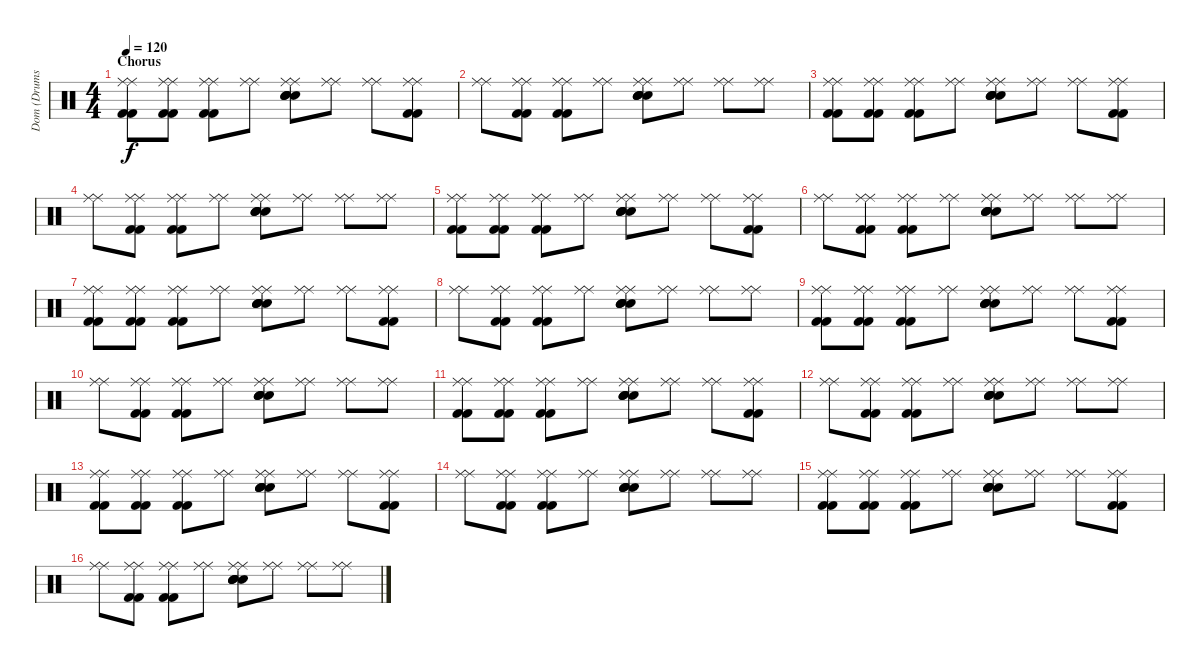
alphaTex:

\track ("Dom (Drums)" "Dom (Drums") {instrument percussion}
\staff {score}
\articulation defaults
\ts (4 4)
\section ("" "Chorus")
\tempo 120
\clef neutral
\ks c
("Kick (hit) 2" "Kick (hit) 2" "Ride (middle)" "Ride (middle)").8{dy f} ("Kick (hit) 2" "Kick (hit) 2" "Ride (middle)" "Ride (middle)").8 ("Kick (hit) 2" "Kick (hit) 2" "Ride (middle)" "Ride (middle)").8 ("Ride (middle)" "Ride (middle)").8 ("Electric Snare (hit)" "Electric Snare (hit)" "Snare (hit) 2" "Snare (hit) 2" "Ride (middle)" "Ride (middle)").8 ("Ride (middle)" "Ride (middle)").8 ("Ride (middle)" "Ride (middle)").8 ("Kick (hit) 2" "Kick (hit) 2" "Ride (middle)" "Ride (middle)").8 |
("Ride (middle)" "Ride (middle)").8 ("Kick (hit) 2" "Kick (hit) 2" "Ride (middle)" "Ride (middle)").8 ("Kick (hit) 2" "Kick (hit) 2" "Ride (middle)" "Ride (middle)").8 ("Ride (middle)" "Ride (middle)").8 ("Electric Snare (hit)" "Electric Snare (hit)" "Snare (hit) 2" "Snare (hit) 2" "Ride (middle)" "Ride (middle)").8 ("Ride (middle)" "Ride (middle)").8 ("Ride (middle)" "Ride (middle)").8 ("Ride (middle)" "Ride (middle)").8 |
("Kick (hit) 2" "Kick (hit) 2" "Ride (middle)" "Ride (middle)").8 ("Kick (hit) 2" "Kick (hit) 2" "Ride (middle)" "Ride (middle)").8 ("Kick (hit) 2" "Kick (hit) 2" "Ride (middle)" "Ride (middle)").8 ("Ride (middle)" "Ride (middle)").8 ("Electric Snare (hit)" "Electric Snare (hit)" "Snare (hit) 2" "Snare (hit) 2" "Ride (middle)" "Ride (middle)").8 ("Ride (middle)" "Ride (middle)").8 ("Ride (middle)" "Ride (middle)").8 ("Kick (hit) 2" "Kick (hit) 2" "Ride (middle)" "Ride (middle)").8 |
("Ride (middle)" "Ride (middle)").8 ("Kick (hit) 2" "Kick (hit) 2" "Ride (middle)" "Ride (middle)").8 ("Kick (hit) 2" "Kick (hit) 2" "Ride (middle)" "Ride (middle)").8 ("Ride (middle)" "Ride (middle)").8 ("Electric Snare (hit)" "Electric Snare (hit)" "Snare (hit) 2" "Snare (hit) 2" "Ride (middle)" "Ride (middle)").8 ("Ride (middle)" "Ride (middle)").8 ("Ride (middle)" "Ride (middle)").8 ("Ride (middle)" "Ride (middle)").8 |
("Kick (hit) 2" "Kick (hit) 2" "Ride (middle)" "Ride (middle)").8 ("Kick (hit) 2" "Kick (hit) 2" "Ride (middle)" "Ride (middle)").8 ("Kick (hit) 2" "Kick (hit) 2" "Ride (middle)" "Ride (middle)").8 ("Ride (middle)" "Ride (middle)").8 ("Electric Snare (hit)" "Electric Snare (hit)" "Snare (hit) 2" "Snare (hit) 2" "Ride (middle)" "Ride (middle)").8 ("Ride (middle)" "Ride (middle)").8 ("Ride (middle)" "Ride (middle)").8 ("Kick (hit) 2" "Kick (hit) 2" "Ride (middle)" "Ride (middle)").8 |
("Ride (middle)" "Ride (middle)").8 ("Kick (hit) 2" "Kick (hit) 2" "Ride (middle)" "Ride (middle)").8 ("Kick (hit) 2" "Kick (hit) 2" "Ride (middle)" "Ride (middle)").8 ("Ride (middle)" "Ride (middle)").8 ("Electric Snare (hit)" "Electric Snare (hit)" "Snare (hit) 2" "Snare (hit) 2" "Ride (middle)" "Ride (middle)").8 ("Ride (middle)" "Ride (middle)").8 ("Ride (middle)" "Ride (middle)").8 ("Ride (middle)" "Ride (middle)").8 |
("Kick (hit) 2" "Kick (hit) 2" "Ride (middle)" "Ride (middle)").8 ("Kick (hit) 2" "Kick (hit) 2" "Ride (middle)" "Ride (middle)").8 ("Kick (hit) 2" "Kick (hit) 2" "Ride (middle)" "Ride (middle)").8 ("Ride (middle)" "Ride (middle)").8 ("Electric Snare (hit)" "Electric Snare (hit)" "Snare (hit) 2" "Snare (hit) 2" "Ride (middle)" "Ride (middle)").8 ("Ride (middle)" "Ride (middle)").8 ("Ride (middle)" "Ride (middle)").8 ("Kick (hit) 2" "Kick (hit) 2" "Ride (middle)" "Ride (middle)").8 |
("Ride (middle)" "Ride (middle)").8 ("Kick (hit) 2" "Kick (hit) 2" "Ride (middle)" "Ride (middle)").8 ("Kick (hit) 2" "Kick (hit) 2" "Ride (middle)" "Ride (middle)").8 ("Ride (middle)" "Ride (middle)").8 ("Electric Snare (hit)" "Electric Snare (hit)" "Snare (hit) 2" "Snare (hit) 2" "Ride (middle)" "Ride (middle)").8 ("Ride (middle)" "Ride (middle)").8 ("Ride (middle)" "Ride (middle)").8 ("Ride (middle)" "Ride (middle)").8 |
("Kick (hit) 2" "Kick (hit) 2" "Ride (middle)" "Ride (middle)").8 ("Kick (hit) 2" "Kick (hit) 2" "Ride (middle)" "Ride (middle)").8 ("Kick (hit) 2" "Kick (hit) 2" "Ride (middle)" "Ride (middle)").8 ("Ride (middle)" "Ride (middle)").8 ("Electric Snare (hit)" "Electric Snare (hit)" "Snare (hit) 2" "Snare (hit) 2" "Ride (middle)" "Ride (middle)").8 ("Ride (middle)" "Ride (middle)").8 ("Ride (middle)" "Ride (middle)").8 ("Kick (hit) 2" "Kick (hit) 2" "Ride (middle)" "Ride (middle)").8 |
("Ride (middle)" "Ride (middle)").8 ("Kick (hit) 2" "Kick (hit) 2" "Ride (middle)" "Ride (middle)").8 ("Kick (hit) 2" "Kick (hit) 2" "Ride (middle)" "Ride (middle)").8 ("Ride (middle)" "Ride (middle)").8 ("Electric Snare (hit)" "Electric Snare (hit)" "Snare (hit) 2" "Snare (hit) 2" "Ride (middle)" "Ride (middle)").8 ("Ride (middle)" "Ride (middle)").8 ("Ride (middle)" "Ride (middle)").8 ("Ride (middle)" "Ride (middle)").8 |
("Kick (hit) 2" "Kick (hit) 2" "Ride (middle)" "Ride (middle)").8 ("Kick (hit) 2" "Kick (hit) 2" "Ride (middle)" "Ride (middle)").8 ("Kick (hit) 2" "Kick (hit) 2" "Ride (middle)" "Ride (middle)").8 ("Ride (middle)" "Ride (middle)").8 ("Electric Snare (hit)" "Electric Snare (hit)" "Snare (hit) 2" "Snare (hit) 2" "Ride (middle)" "Ride (middle)").8 ("Ride (middle)" "Ride (middle)").8 ("Ride (middle)" "Ride (middle)").8 ("Kick (hit) 2" "Kick (hit) 2" "Ride (middle)" "Ride (middle)").8 |
("Ride (middle)" "Ride (middle)").8 ("Kick (hit) 2" "Kick (hit) 2" "Ride (middle)" "Ride (middle)").8 ("Kick (hit) 2" "Kick (hit) 2" "Ride (middle)" "Ride (middle)").8 ("Ride (middle)" "Ride (middle)").8 ("Electric Snare (hit)" "Electric Snare (hit)" "Snare (hit) 2" "Snare (hit) 2" "Ride (middle)" "Ride (middle)").8 ("Ride (middle)" "Ride (middle)").8 ("Ride (middle)" "Ride (middle)").8 ("Ride (middle)" "Ride (middle)").8 |
("Kick (hit) 2" "Kick (hit) 2" "Ride (middle)" "Ride (middle)").8 ("Kick (hit) 2" "Kick (hit) 2" "Ride (middle)" "Ride (middle)").8 ("Kick (hit) 2" "Kick (hit) 2" "Ride (middle)" "Ride (middle)").8 ("Ride (middle)" "Ride (middle)").8 ("Electric Snare (hit)" "Electric Snare (hit)" "Snare (hit) 2" "Snare (hit) 2" "Ride (middle)" "Ride (middle)").8 ("Ride (middle)" "Ride (middle)").8 ("Ride (middle)" "Ride (middle)").8 ("Kick (hit) 2" "Kick (hit) 2" "Ride (middle)" "Ride (middle)").8 |
("Ride (middle)" "Ride (middle)").8 ("Kick (hit) 2" "Kick (hit) 2" "Ride (middle)" "Ride (middle)").8 ("Kick (hit) 2" "Kick (hit) 2" "Ride (middle)" "Ride (middle)").8 ("Ride (middle)" "Ride (middle)").8 ("Electric Snare (hit)" "Electric Snare (hit)" "Snare (hit) 2" "Snare (hit) 2" "Ride (middle)" "Ride (middle)").8 ("Ride (middle)" "Ride (middle)").8 ("Ride (middle)" "Ride (middle)").8 ("Ride (middle)" "Ride (middle)").8 |
("Kick (hit) 2" "Kick (hit) 2" "Ride (middle)" "Ride (middle)").8 ("Kick (hit) 2" "Kick (hit) 2" "Ride (middle)" "Ride (middle)").8 ("Kick (hit) 2" "Kick (hit) 2" "Ride (middle)" "Ride (middle)").8 ("Ride (middle)" "Ride (middle)").8 ("Electric Snare (hit)" "Electric Snare (hit)" "Snare (hit) 2" "Snare (hit) 2" "Ride (middle)" "Ride (middle)").8 ("Ride (middle)" "Ride (middle)").8 ("Ride (middle)" "Ride (middle)").8 ("Kick (hit) 2" "Kick (hit) 2" "Ride (middle)" "Ride (middle)").8 |
("Ride (middle)" "Ride (middle)").8 ("Kick (hit) 2" "Kick (hit) 2" "Ride (middle)" "Ride (middle)").8 ("Kick (hit) 2" "Kick (hit) 2" "Ride (middle)" "Ride (middle)").8 ("Ride (middle)" "Ride (middle)").8 ("Electric Snare (hit)" "Electric Snare (hit)" "Snare (hit) 2" "Snare (hit) 2" "Ride (middle)" "Ride (middle)").8 ("Ride (middle)" "Ride (middle)").8 ("Ride (middle)" "Ride (middle)").8 ("Ride (middle)" "Ride (middle)").8
